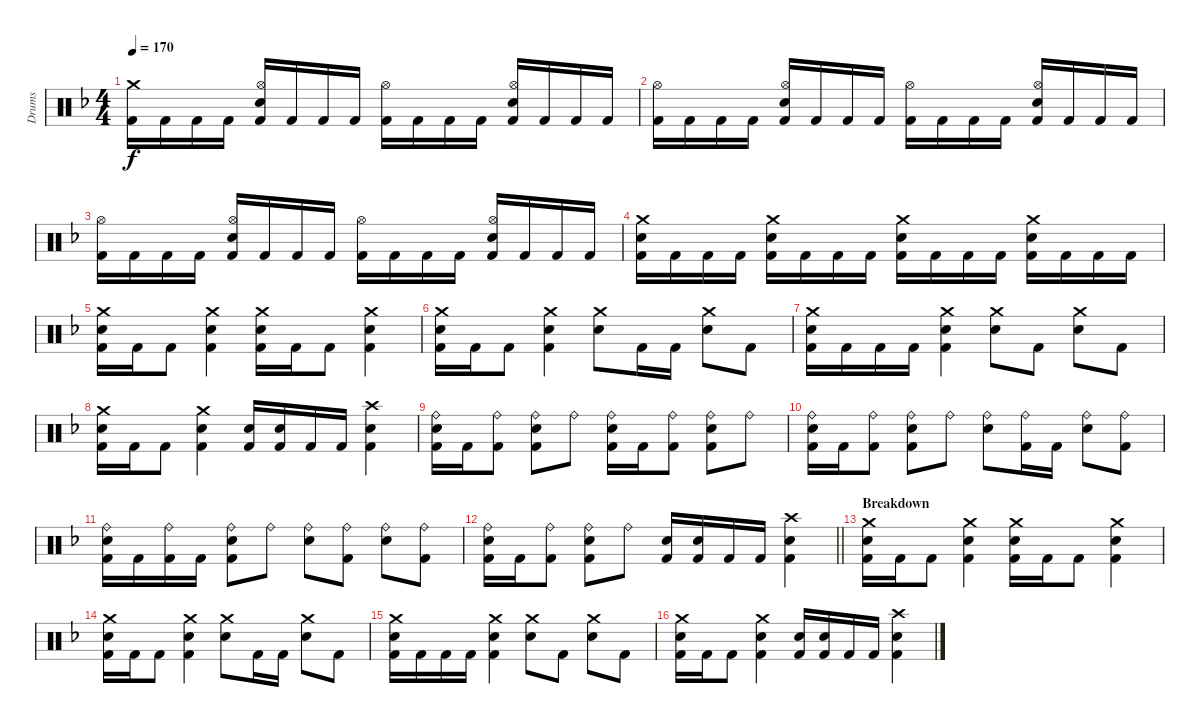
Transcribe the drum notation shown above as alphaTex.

\track ("Drums" "Drums") {instrument percussion}
\staff {score}
\articulation defaults
\ts (4 4)
\tempo 170
\clef neutral
\ks dminor
("Crash medium (hit)" "Kick (hit) 2").16{dy f} "Kick (hit) 2".16 "Kick (hit) 2".16 "Kick (hit) 2".16 ("Hi-Hat (open)" "Electric Snare (hit)" "Kick (hit) 2").16 "Kick (hit) 2".16 "Kick (hit) 2".16 "Kick (hit) 2".16 ("Hi-Hat (open)" "Kick (hit) 2").16 "Kick (hit) 2".16 "Kick (hit) 2".16 "Kick (hit) 2".16 ("Hi-Hat (open)" "Electric Snare (hit)" "Kick (hit) 2").16 "Kick (hit) 2".16 "Kick (hit) 2".16 "Kick (hit) 2".16 |
("Hi-Hat (open)" "Kick (hit) 2").16 "Kick (hit) 2".16 "Kick (hit) 2".16 "Kick (hit) 2".16 ("Hi-Hat (open)" "Electric Snare (hit)" "Kick (hit) 2").16 "Kick (hit) 2".16 "Kick (hit) 2".16 "Kick (hit) 2".16 ("Hi-Hat (open)" "Kick (hit) 2").16 "Kick (hit) 2".16 "Kick (hit) 2".16 "Kick (hit) 2".16 ("Hi-Hat (open)" "Electric Snare (hit)" "Kick (hit) 2").16 "Kick (hit) 2".16 "Kick (hit) 2".16 "Kick (hit) 2".16 |
("Hi-Hat (open)" "Kick (hit) 2").16 "Kick (hit) 2".16 "Kick (hit) 2".16 "Kick (hit) 2".16 ("Hi-Hat (open)" "Electric Snare (hit)" "Kick (hit) 2").16 "Kick (hit) 2".16 "Kick (hit) 2".16 "Kick (hit) 2".16 ("Hi-Hat (open)" "Kick (hit) 2").16 "Kick (hit) 2".16 "Kick (hit) 2".16 "Kick (hit) 2".16 ("Hi-Hat (open)" "Electric Snare (hit)" "Kick (hit) 2").16 "Kick (hit) 2".16 "Kick (hit) 2".16 "Kick (hit) 2".16 |
("Crash medium (hit)" "Electric Snare (hit)" "Kick (hit) 2").16 "Kick (hit) 2".16 "Kick (hit) 2".16 "Kick (hit) 2".16 ("Crash medium (hit)" "Electric Snare (hit)" "Kick (hit) 2").16 "Kick (hit) 2".16 "Kick (hit) 2".16 "Kick (hit) 2".16 ("Crash medium (hit)" "Electric Snare (hit)" "Kick (hit) 2").16 "Kick (hit) 2".16 "Kick (hit) 2".16 "Kick (hit) 2".16 ("Crash medium (hit)" "Electric Snare (hit)" "Kick (hit) 2").16 "Kick (hit) 2".16 "Kick (hit) 2".16 "Kick (hit) 2".16 |
("Crash medium (hit)" "Electric Snare (hit)" "Kick (hit) 2").16 "Kick (hit) 2".16 "Kick (hit) 2".8 ("Crash medium (hit)" "Electric Snare (hit)" "Kick (hit) 2").4 ("Crash medium (hit)" "Electric Snare (hit)" "Kick (hit) 2").16 "Kick (hit) 2".16 "Kick (hit) 2".8 ("Crash medium (hit)" "Electric Snare (hit)" "Kick (hit) 2").4 |
("Crash medium (hit)" "Electric Snare (hit)" "Kick (hit) 2").16 "Kick (hit) 2".16 "Kick (hit) 2".8 ("Crash medium (hit)" "Electric Snare (hit)" "Kick (hit) 2").4 ("Crash medium (hit)" "Electric Snare (hit)").8 "Kick (hit) 2".16 "Kick (hit) 2".16 ("Crash medium (hit)" "Electric Snare (hit)").8 "Kick (hit) 2".8 |
("Crash medium (hit)" "Electric Snare (hit)" "Kick (hit) 2").16 "Kick (hit) 2".16 "Kick (hit) 2".16 "Kick (hit) 2".16 ("Crash medium (hit)" "Electric Snare (hit)" "Kick (hit) 2").4 ("Crash medium (hit)" "Electric Snare (hit)").8 "Kick (hit) 2".8 ("Crash medium (hit)" "Electric Snare (hit)").8 "Kick (hit) 2".8 |
("Crash medium (hit)" "Electric Snare (hit)" "Kick (hit) 2").16 "Kick (hit) 2".16 "Kick (hit) 2".8 ("Crash medium (hit)" "Electric Snare (hit)" "Kick (hit) 2").4 ("Electric Snare (hit)" "Kick (hit) 2").16 ("Electric Snare (hit)" "Kick (hit) 2").16 "Kick (hit) 2".16 "Kick (hit) 2".16 ("Crash high (hit)" "Electric Snare (hit)" "Kick (hit) 2").4 |
("Ride (bell)" "Electric Snare (hit)" "Kick (hit) 2").16 "Kick (hit) 2".16 ("Ride (bell)" "Kick (hit) 2").8 ("Ride (bell)" "Electric Snare (hit)" "Kick (hit) 2").8 "Ride (bell)".8 ("Ride (bell)" "Electric Snare (hit)" "Kick (hit) 2").16 "Kick (hit) 2".16 ("Ride (bell)" "Kick (hit) 2").8 ("Ride (bell)" "Electric Snare (hit)" "Kick (hit) 2").8 "Ride (bell)".8 |
("Ride (bell)" "Electric Snare (hit)" "Kick (hit) 2").16 "Kick (hit) 2".16 ("Ride (bell)" "Kick (hit) 2").8 ("Ride (bell)" "Electric Snare (hit)" "Kick (hit) 2").8 "Ride (bell)".8 ("Ride (bell)" "Electric Snare (hit)").8 ("Ride (bell)" "Kick (hit) 2").16 "Kick (hit) 2".16 ("Ride (bell)" "Electric Snare (hit)").8 ("Ride (bell)" "Kick (hit) 2").8 |
("Ride (bell)" "Electric Snare (hit)" "Kick (hit) 2").16 "Kick (hit) 2".16 ("Ride (bell)" "Kick (hit) 2").16 "Kick (hit) 2".16 ("Ride (bell)" "Electric Snare (hit)" "Kick (hit) 2").8 "Ride (bell)".8 ("Ride (bell)" "Electric Snare (hit)").8 ("Ride (bell)" "Kick (hit) 2").8 ("Ride (bell)" "Electric Snare (hit)").8 ("Ride (bell)" "Kick (hit) 2").8 |
\barLineRight lightlight
("Ride (bell)" "Electric Snare (hit)" "Kick (hit) 2").16 "Kick (hit) 2".16 ("Ride (bell)" "Kick (hit) 2").8 ("Ride (bell)" "Electric Snare (hit)" "Kick (hit) 2").8 "Ride (bell)".8 ("Electric Snare (hit)" "Kick (hit) 2").16 ("Electric Snare (hit)" "Kick (hit) 2").16 "Kick (hit) 2".16 "Kick (hit) 2".16 ("Crash high (hit)" "Electric Snare (hit)" "Kick (hit) 2").4 |
\section ("" "Breakdown")
("Crash medium (hit)" "Electric Snare (hit)" "Kick (hit) 2").16 "Kick (hit) 2".16 "Kick (hit) 2".8 ("Crash medium (hit)" "Electric Snare (hit)" "Kick (hit) 2").4 ("Crash medium (hit)" "Electric Snare (hit)" "Kick (hit) 2").16 "Kick (hit) 2".16 "Kick (hit) 2".8 ("Crash medium (hit)" "Electric Snare (hit)" "Kick (hit) 2").4 |
("Crash medium (hit)" "Electric Snare (hit)" "Kick (hit) 2").16 "Kick (hit) 2".16 "Kick (hit) 2".8 ("Crash medium (hit)" "Electric Snare (hit)" "Kick (hit) 2").4 ("Crash medium (hit)" "Electric Snare (hit)").8 "Kick (hit) 2".16 "Kick (hit) 2".16 ("Crash medium (hit)" "Electric Snare (hit)").8 "Kick (hit) 2".8 |
("Crash medium (hit)" "Electric Snare (hit)" "Kick (hit) 2").16 "Kick (hit) 2".16 "Kick (hit) 2".16 "Kick (hit) 2".16 ("Crash medium (hit)" "Electric Snare (hit)" "Kick (hit) 2").4 ("Crash medium (hit)" "Electric Snare (hit)").8 "Kick (hit) 2".8 ("Crash medium (hit)" "Electric Snare (hit)").8 "Kick (hit) 2".8 |
("Crash medium (hit)" "Electric Snare (hit)" "Kick (hit) 2").16 "Kick (hit) 2".16 "Kick (hit) 2".8 ("Crash medium (hit)" "Electric Snare (hit)" "Kick (hit) 2").4 ("Electric Snare (hit)" "Kick (hit) 2").16 ("Electric Snare (hit)" "Kick (hit) 2").16 "Kick (hit) 2".16 "Kick (hit) 2".16 ("Crash high (hit)" "Electric Snare (hit)" "Kick (hit) 2").4
